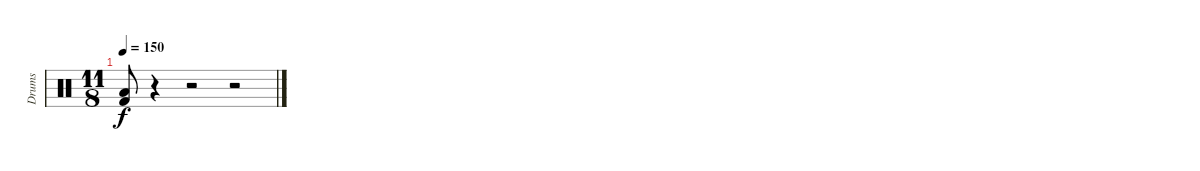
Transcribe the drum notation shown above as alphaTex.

\track ("Drums" "Drums") {instrument percussion}
\staff {score}
\articulation defaults
\ts (11 8)
\tempo 150
\clef neutral
\ks c
("Low Floor Tom (hit)" "Kick (hit) 2").8{dy f} r.4 r.2 r.2
